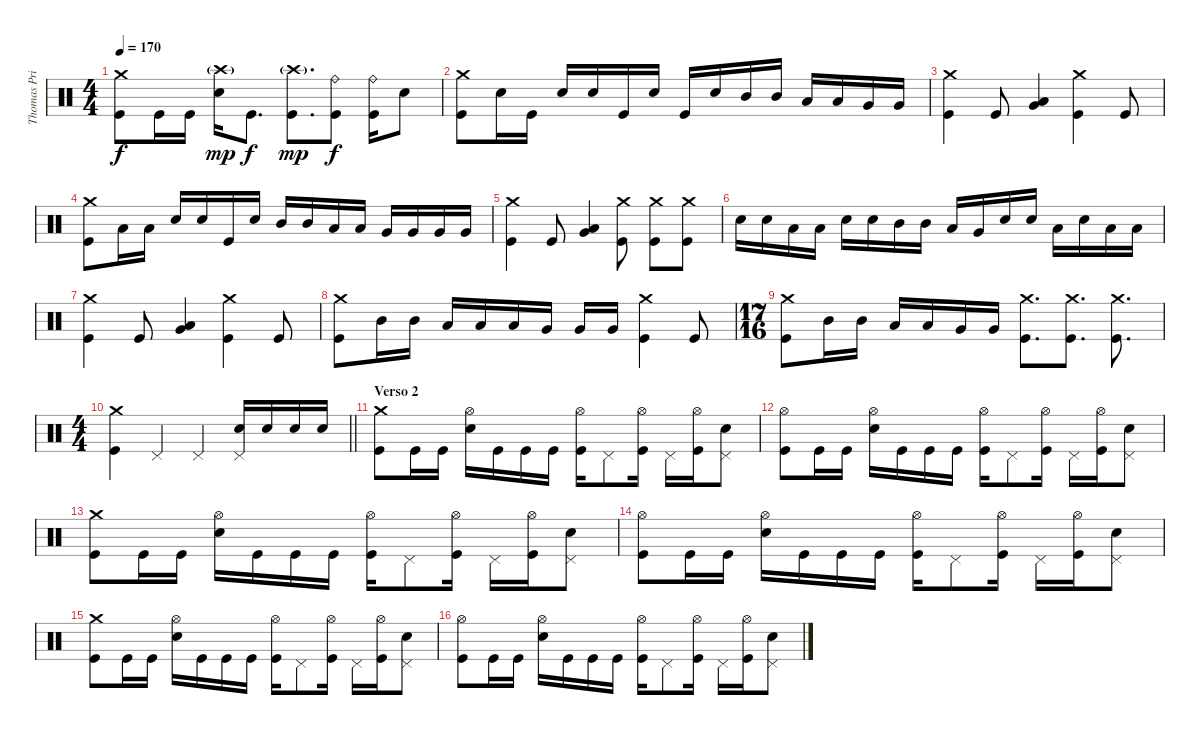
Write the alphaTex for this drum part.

\track ("Thomas Pridgen [Drum]" "Thomas Pri") {instrument percussion}
\staff {score}
\articulation defaults
\ts (4 4)
\tempo 170
\clef neutral
\ks c
("Crash medium (hit)" "Kick (hit)").8{dy f} "Kick (hit)".16 "Kick (hit)".16 ("Crash high (hit)"{g} "Electric Snare (hit)").16{dy mp} "Kick (hit)".8{d dy f} ("Crash high (hit)"{g} "Kick (hit)").8{d dy mp} ("Ride (bell)" "Kick (hit)").8{dy f} ("Ride (bell)" "Kick (hit)").16 "Electric Snare (hit)".8 |
("Crash medium (hit)" "Kick (hit)").8 "Electric Snare (hit)".16 "Kick (hit)".16 "Electric Snare (hit)".16 "Electric Snare (hit)".16 "Kick (hit)".16 "Electric Snare (hit)".16 "Kick (hit)".16 "Electric Snare (hit)".16 "Mid Tom (hit)".16 "Mid Tom (hit)".16 "Low Tom (hit)".16 "Low Tom (hit)".16 "Very Low Tom (hit)".16 "Very Low Tom (hit)".16 |
("Crash medium (hit)" "Kick (hit)").4 "Kick (hit)".8 ("Low Tom (hit)" "Very Low Tom (hit)").4 ("Crash medium (hit)" "Kick (hit)").4 "Kick (hit)".8 |
("Crash medium (hit)" "Kick (hit)").8 "Low Tom (hit)".16 "Low Tom (hit)".16 "Electric Snare (hit)".16 "Electric Snare (hit)".16 "Kick (hit)".16 "Electric Snare (hit)".16 "Mid Tom (hit)".16 "Mid Tom (hit)".16 "Low Tom (hit)".16 "Low Tom (hit)".16 "Very Low Tom (hit)".16 "Very Low Tom (hit)".16 "Very Low Tom (hit)".16 "Very Low Tom (hit)".16 |
("Crash medium (hit)" "Kick (hit)").4 "Kick (hit)".8 ("Low Tom (hit)" "Very Low Tom (hit)").4 ("Crash medium (hit)" "Kick (hit)").8 ("Crash medium (hit)" "Kick (hit)").8 ("Crash medium (hit)" "Kick (hit)").8 |
"Electric Snare (hit)".16 "Electric Snare (hit)".16 "Low Tom (hit)".16 "Low Tom (hit)".16 "Electric Snare (hit)".16 "Electric Snare (hit)".16 "Mid Tom (hit)".16 "Mid Tom (hit)".16 "Low Tom (hit)".16 "Very Low Tom (hit)".16 "Electric Snare (hit)".16 "Electric Snare (hit)".16 "Low Tom (hit)".16 "Electric Snare (hit)".16 "Low Tom (hit)".16 "Low Tom (hit)".16 |
("Crash medium (hit)" "Kick (hit)").4 "Kick (hit)".8 ("Low Tom (hit)" "Very Low Tom (hit)").4 ("Crash medium (hit)" "Kick (hit)").4 "Kick (hit)".8 |
("Crash medium (hit)" "Kick (hit)").8 "Mid Tom (hit)".16 "Mid Tom (hit)".16 "Low Tom (hit)".16 "Low Tom (hit)".16 "Low Tom (hit)".16 "Very Low Tom (hit)".16 "Very Low Tom (hit)".16 "Very Low Tom (hit)".16 ("Crash medium (hit)" "Kick (hit)").4 "Kick (hit)".8 |
\ts (17 16)
("Crash medium (hit)" "Kick (hit)").8 "Mid Tom (hit)".16 "Mid Tom (hit)".16 "Low Tom (hit)".16 "Low Tom (hit)".16 "Very Low Tom (hit)".16 "Very Low Tom (hit)".16 ("Crash medium (hit)" "Kick (hit)").8{d} ("Crash medium (hit)" "Kick (hit)").8{d} ("Crash medium (hit)" "Kick (hit)").8{d} |
\ts (4 4)
\barLineRight lightlight
("Crash medium (hit)" "Kick (hit)").4 "Pedal Hi-Hat (hit)".4 "Pedal Hi-Hat (hit)".4 ("Pedal Hi-Hat (hit)" "Electric Snare (hit)").16 "Electric Snare (hit)".16 "Electric Snare (hit)".16 "Electric Snare (hit)".16 |
\section ("" "Verso 2")
("Crash medium (hit)" "Kick (hit)").8 "Kick (hit)".16 "Kick (hit)".16 ("Hi-Hat (open)" "Electric Snare (hit)").16 "Kick (hit)".16 "Kick (hit)".16 "Kick (hit)".16 ("Hi-Hat (open)" "Kick (hit)").16 "Pedal Hi-Hat (hit)".8 ("Hi-Hat (open)" "Kick (hit)").16 "Pedal Hi-Hat (hit)".16 ("Hi-Hat (open)" "Kick (hit)").16 ("Pedal Hi-Hat (hit)" "Electric Snare (hit)").8 |
("Hi-Hat (open)" "Kick (hit)").8 "Kick (hit)".16 "Kick (hit)".16 ("Hi-Hat (open)" "Electric Snare (hit)").16 "Kick (hit)".16 "Kick (hit)".16 "Kick (hit)".16 ("Hi-Hat (open)" "Kick (hit)").16 "Pedal Hi-Hat (hit)".8 ("Hi-Hat (open)" "Kick (hit)").16 "Pedal Hi-Hat (hit)".16 ("Hi-Hat (open)" "Kick (hit)").16 ("Pedal Hi-Hat (hit)" "Electric Snare (hit)").8 |
("Crash medium (hit)" "Kick (hit)").8 "Kick (hit)".16 "Kick (hit)".16 ("Hi-Hat (open)" "Electric Snare (hit)").16 "Kick (hit)".16 "Kick (hit)".16 "Kick (hit)".16 ("Hi-Hat (open)" "Kick (hit)").16 "Pedal Hi-Hat (hit)".8 ("Hi-Hat (open)" "Kick (hit)").16 "Pedal Hi-Hat (hit)".16 ("Hi-Hat (open)" "Kick (hit)").16 ("Pedal Hi-Hat (hit)" "Electric Snare (hit)").8 |
("Hi-Hat (open)" "Kick (hit)").8 "Kick (hit)".16 "Kick (hit)".16 ("Hi-Hat (open)" "Electric Snare (hit)").16 "Kick (hit)".16 "Kick (hit)".16 "Kick (hit)".16 ("Hi-Hat (open)" "Kick (hit)").16 "Pedal Hi-Hat (hit)".8 ("Hi-Hat (open)" "Kick (hit)").16 "Pedal Hi-Hat (hit)".16 ("Hi-Hat (open)" "Kick (hit)").16 ("Pedal Hi-Hat (hit)" "Electric Snare (hit)").8 |
("Crash medium (hit)" "Kick (hit)").8 "Kick (hit)".16 "Kick (hit)".16 ("Hi-Hat (open)" "Electric Snare (hit)").16 "Kick (hit)".16 "Kick (hit)".16 "Kick (hit)".16 ("Hi-Hat (open)" "Kick (hit)").16 "Pedal Hi-Hat (hit)".8 ("Hi-Hat (open)" "Kick (hit)").16 "Pedal Hi-Hat (hit)".16 ("Hi-Hat (open)" "Kick (hit)").16 ("Pedal Hi-Hat (hit)" "Electric Snare (hit)").8 |
("Hi-Hat (open)" "Kick (hit)").8 "Kick (hit)".16 "Kick (hit)".16 ("Hi-Hat (open)" "Electric Snare (hit)").16 "Kick (hit)".16 "Kick (hit)".16 "Kick (hit)".16 ("Hi-Hat (open)" "Kick (hit)").16 "Pedal Hi-Hat (hit)".8 ("Hi-Hat (open)" "Kick (hit)").16 "Pedal Hi-Hat (hit)".16 ("Hi-Hat (open)" "Kick (hit)").16 ("Pedal Hi-Hat (hit)" "Electric Snare (hit)").8
